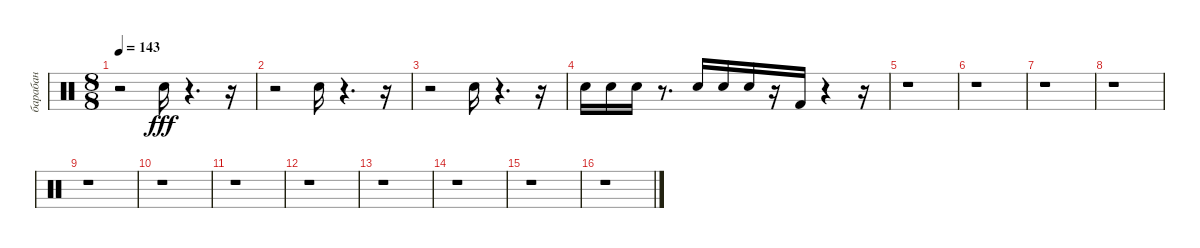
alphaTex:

\track ("барабан" "барабан") {instrument percussion}
\staff {score}
\articulation defaults
\ts (8 8)
\tempo 143
\clef neutral
\ks c
r.2{dy fff} "Snare (hit) 2".16 r.4{d} r.16 |
r.2 "Snare (hit) 2".16 r.4{d} r.16 |
r.2 "Snare (hit) 2".16 r.4{d} r.16 |
"Snare (hit) 2".16 "Snare (hit) 2".16 "Snare (hit) 2".16 r.8{d} "Snare (hit) 2".16 "Snare (hit) 2".16 "Snare (hit) 2".16 r.16 "Kick (hit) 2".16 r.4 r.16 |
r.1 |
r.1 |
r.1 |
r.1 |
r.1 |
r.1 |
r.1 |
r.1 |
r.1 |
r.1 |
r.1 |
r.1
